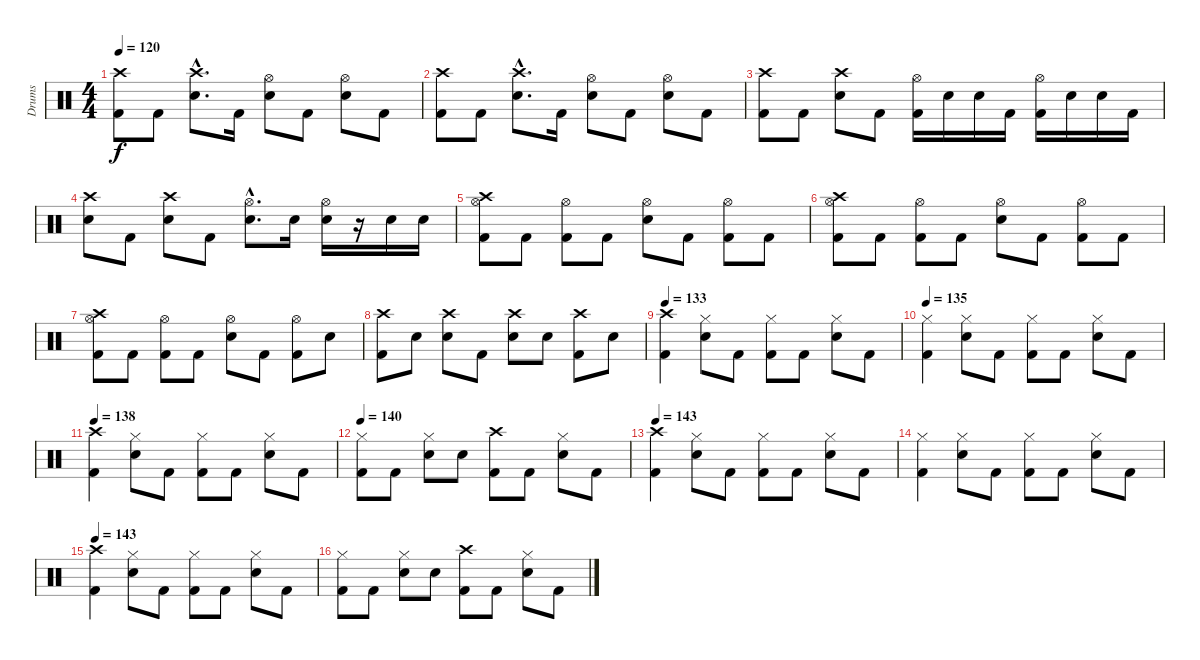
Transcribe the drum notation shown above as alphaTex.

\track ("Drums" "Drums") {instrument percussion}
\staff {score}
\articulation defaults
\ts (4 4)
\tempo 120
\clef neutral
\ks c
("Crash high (hit)" "Kick (hit) 2").8{dy f} "Kick (hit) 2".8 ("Crash high (hit)"{hac} "Electric Snare (hit)"{hac}).8{d} "Kick (hit) 2".16 ("Hi-Hat (open)" "Electric Snare (hit)").8 "Kick (hit) 2".8 ("Hi-Hat (open)" "Electric Snare (hit)").8 "Kick (hit) 2".8 |
("Crash high (hit)" "Kick (hit) 2").8 "Kick (hit) 2".8 ("Crash high (hit)"{hac} "Electric Snare (hit)"{hac}).8{d} "Kick (hit) 2".16 ("Hi-Hat (open)" "Electric Snare (hit)").8 "Kick (hit) 2".8 ("Hi-Hat (open)" "Electric Snare (hit)").8 "Kick (hit) 2".8 |
("Crash high (hit)" "Kick (hit) 2").8 "Kick (hit) 2".8 ("Crash high (hit)" "Electric Snare (hit)").8 "Kick (hit) 2".8 ("Hi-Hat (open)" "Kick (hit) 2").16 "Electric Snare (hit)".16 "Electric Snare (hit)".16 "Kick (hit) 2".16 ("Hi-Hat (open)" "Kick (hit) 2").16 "Electric Snare (hit)".16 "Electric Snare (hit)".16 "Kick (hit) 2".16 |
("Crash high (hit)" "Electric Snare (hit)").8 "Kick (hit) 2".8 ("Crash high (hit)" "Electric Snare (hit)").8 "Kick (hit) 2".8 ("Hi-Hat (open)"{hac} "Electric Snare (hit)"{hac}).8{d} "Electric Snare (hit)".16 ("Hi-Hat (open)" "Electric Snare (hit)").16 r.16 "Electric Snare (hit)".16 "Electric Snare (hit)".16 |
("Crash high (hit)" "Hi-Hat (open)" "Kick (hit) 2").8 "Kick (hit) 2".8 ("Hi-Hat (open)" "Kick (hit) 2").8 "Kick (hit) 2".8 ("Hi-Hat (open)" "Electric Snare (hit)").8 "Kick (hit) 2".8 ("Hi-Hat (open)" "Kick (hit) 2").8 "Kick (hit) 2".8 |
("Crash high (hit)" "Hi-Hat (open)" "Kick (hit) 2").8 "Kick (hit) 2".8 ("Hi-Hat (open)" "Kick (hit) 2").8 "Kick (hit) 2".8 ("Hi-Hat (open)" "Electric Snare (hit)").8 "Kick (hit) 2".8 ("Hi-Hat (open)" "Kick (hit) 2").8 "Kick (hit) 2".8 |
("Crash high (hit)" "Hi-Hat (open)" "Kick (hit) 2").8 "Kick (hit) 2".8 ("Hi-Hat (open)" "Kick (hit) 2").8 "Kick (hit) 2".8 ("Hi-Hat (open)" "Electric Snare (hit)").8 "Kick (hit) 2".8 ("Hi-Hat (open)" "Kick (hit) 2").8 "Electric Snare (hit)".8 |
("Crash high (hit)" "Kick (hit) 2").8 "Electric Snare (hit)".8 ("Crash high (hit)" "Electric Snare (hit)").8 "Kick (hit) 2".8 ("Crash high (hit)" "Electric Snare (hit)").8 "Electric Snare (hit)".8 ("Crash high (hit)" "Kick (hit) 2").8 "Electric Snare (hit)".8 |
\tempo 133
("Crash high (hit)" "Kick (hit) 2").4 ("Hi-Hat (closed)" "Electric Snare (hit)").8 "Kick (hit) 2".8 ("Hi-Hat (closed)" "Kick (hit) 2").8 "Kick (hit) 2".8 ("Hi-Hat (closed)" "Electric Snare (hit)").8 "Kick (hit) 2".8 |
\tempo 135
("Hi-Hat (closed)" "Kick (hit) 2").4 ("Hi-Hat (closed)" "Electric Snare (hit)").8 "Kick (hit) 2".8 ("Hi-Hat (closed)" "Kick (hit) 2").8 "Kick (hit) 2".8 ("Hi-Hat (closed)" "Electric Snare (hit)").8 "Kick (hit) 2".8 |
\tempo 138
("Crash high (hit)" "Kick (hit) 2").4 ("Hi-Hat (closed)" "Electric Snare (hit)").8 "Kick (hit) 2".8 ("Hi-Hat (closed)" "Kick (hit) 2").8 "Kick (hit) 2".8 ("Hi-Hat (closed)" "Electric Snare (hit)").8 "Kick (hit) 2".8 |
\tempo 140
("Hi-Hat (closed)" "Kick (hit) 2").8 "Kick (hit) 2".8 ("Hi-Hat (closed)" "Electric Snare (hit)").8 "Electric Snare (hit)".8 ("Crash high (hit)" "Kick (hit) 2").8 "Kick (hit) 2".8 ("Hi-Hat (closed)" "Electric Snare (hit)").8 "Kick (hit) 2".8 |
\tempo 143
("Crash high (hit)" "Kick (hit) 2").4 ("Hi-Hat (closed)" "Electric Snare (hit)").8 "Kick (hit) 2".8 ("Hi-Hat (closed)" "Kick (hit) 2").8 "Kick (hit) 2".8 ("Hi-Hat (closed)" "Electric Snare (hit)").8 "Kick (hit) 2".8 |
("Hi-Hat (closed)" "Kick (hit) 2").4 ("Hi-Hat (closed)" "Electric Snare (hit)").8 "Kick (hit) 2".8 ("Hi-Hat (closed)" "Kick (hit) 2").8 "Kick (hit) 2".8 ("Hi-Hat (closed)" "Electric Snare (hit)").8 "Kick (hit) 2".8 |
\tempo 143
("Crash high (hit)" "Kick (hit) 2").4 ("Hi-Hat (closed)" "Electric Snare (hit)").8 "Kick (hit) 2".8 ("Hi-Hat (closed)" "Kick (hit) 2").8 "Kick (hit) 2".8 ("Hi-Hat (closed)" "Electric Snare (hit)").8 "Kick (hit) 2".8 |
("Hi-Hat (closed)" "Kick (hit) 2").8 "Kick (hit) 2".8 ("Hi-Hat (closed)" "Electric Snare (hit)").8 "Electric Snare (hit)".8 ("Crash high (hit)" "Kick (hit) 2").8 "Kick (hit) 2".8 ("Hi-Hat (closed)" "Electric Snare (hit)").8 "Kick (hit) 2".8
